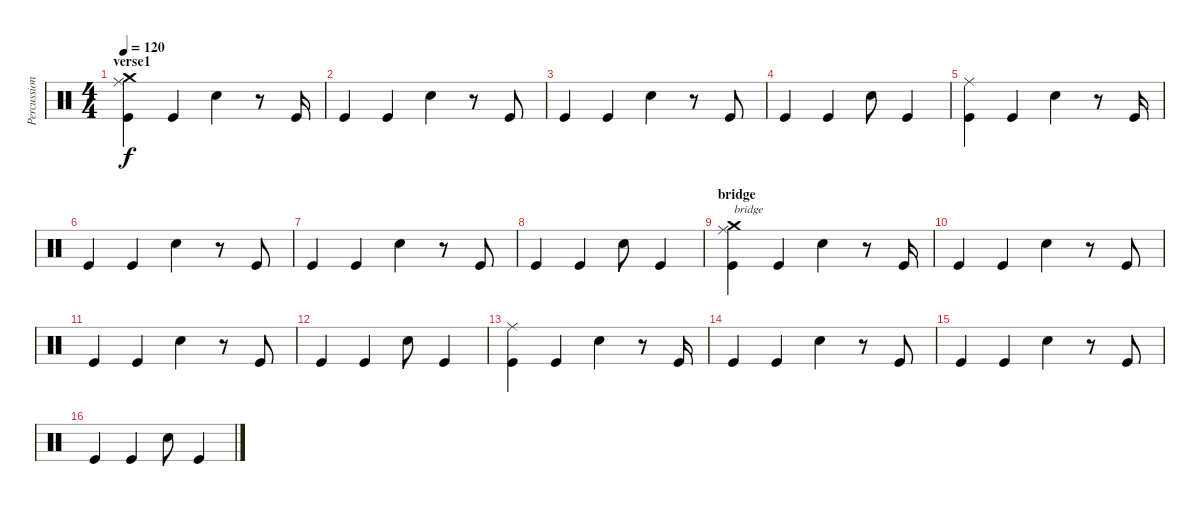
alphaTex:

\track ("Percussion" "Percussion") {instrument percussion}
\staff {score}
\articulation defaults
\ts (4 4)
\section ("" "verse1")
\tempo 120
\clef neutral
\ks c
("Kick (hit)" "Crash medium (hit)" "Ride (middle)").4{dy f} "Kick (hit)".4 "Electric Snare (hit)".4 r.8 "Kick (hit)".16 |
"Kick (hit)".4 "Kick (hit)".4 "Electric Snare (hit)".4 r.8 "Kick (hit)".8 |
"Kick (hit)".4 "Kick (hit)".4 "Electric Snare (hit)".4 r.8 "Kick (hit)".8 |
"Kick (hit)".4 "Kick (hit)".4 "Electric Snare (hit)".8 "Kick (hit)".4 |
("Kick (hit)" "Ride (middle)").4 "Kick (hit)".4 "Electric Snare (hit)".4 r.8 "Kick (hit)".16 |
"Kick (hit)".4 "Kick (hit)".4 "Electric Snare (hit)".4 r.8 "Kick (hit)".8 |
"Kick (hit)".4 "Kick (hit)".4 "Electric Snare (hit)".4 r.8 "Kick (hit)".8 |
"Kick (hit)".4 "Kick (hit)".4 "Electric Snare (hit)".8 "Kick (hit)".4 |
\section ("" "bridge")
("Kick (hit)" "Ride (middle)" "Crash medium (hit)").4{txt "bridge"} "Kick (hit)".4 "Electric Snare (hit)".4 r.8 "Kick (hit)".16 |
"Kick (hit)".4 "Kick (hit)".4 "Electric Snare (hit)".4 r.8 "Kick (hit)".8 |
"Kick (hit)".4 "Kick (hit)".4 "Electric Snare (hit)".4 r.8 "Kick (hit)".8 |
"Kick (hit)".4 "Kick (hit)".4 "Electric Snare (hit)".8 "Kick (hit)".4 |
("Kick (hit)" "Ride (middle)").4 "Kick (hit)".4 "Electric Snare (hit)".4 r.8 "Kick (hit)".16 |
"Kick (hit)".4 "Kick (hit)".4 "Electric Snare (hit)".4 r.8 "Kick (hit)".8 |
"Kick (hit)".4 "Kick (hit)".4 "Electric Snare (hit)".4 r.8 "Kick (hit)".8 |
"Kick (hit)".4 "Kick (hit)".4 "Electric Snare (hit)".8 "Kick (hit)".4
